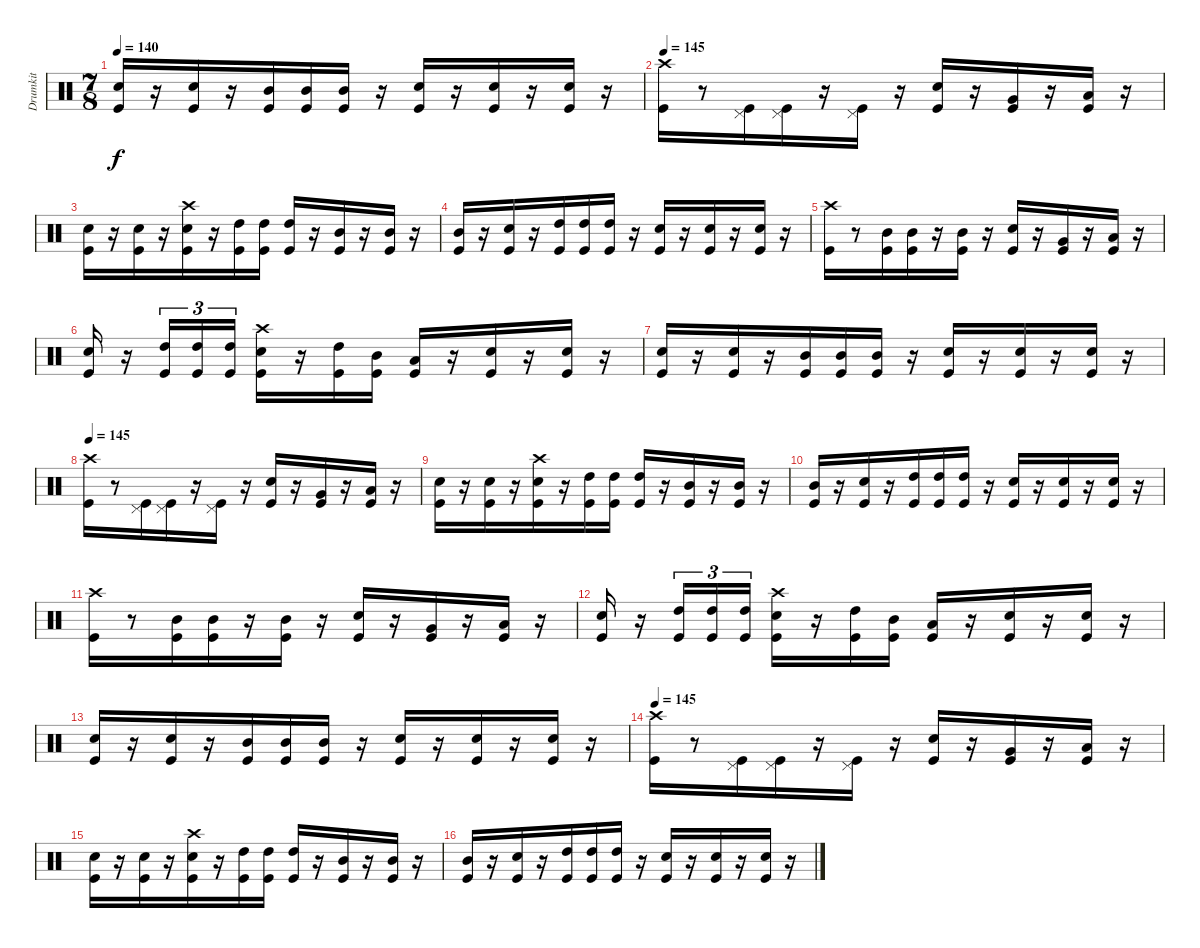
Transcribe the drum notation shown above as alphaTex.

\track ("Drumkit" "Drumkit") {instrument percussion}
\staff {score}
\articulation defaults
\ts (7 8)
\tempo 140
\clef neutral
\ks c
("Snare (hit) 2" "Kick (hit)").16{dy f} r.16 ("Snare (hit) 2" "Kick (hit)").16 r.16 ("Mid Tom (hit)" "Kick (hit)").16 ("Mid Tom (hit)" "Kick (hit)").16 ("Mid Tom (hit)" "Kick (hit)").16 r.16 ("Snare (hit) 2" "Kick (hit)").16 r.16 ("Snare (hit) 2" "Kick (hit)").16 r.16 ("Snare (hit) 2" "Kick (hit)").16 r.16 |
\tempo 145
("Crash high (hit)" "Kick (hit)").16 r.8 ("Pedal Hi-Hat (hit)" "Kick (hit)").16 ("Pedal Hi-Hat (hit)" "Kick (hit)").16 r.16 ("Pedal Hi-Hat (hit)" "Kick (hit)").16 r.16 ("Snare (hit) 2" "Kick (hit)").16 r.16 ("Very Low Tom (hit)" "Kick (hit)").16 r.16 ("Low Tom (hit)" "Kick (hit)").16 r.16 |
("Snare (hit) 2" "Kick (hit)").16 r.16 ("Snare (hit) 2" "Kick (hit)").16 r.16 ("Crash high (hit)" "Snare (hit) 2" "Kick (hit)").16 r.16 ("High Tom (hit)" "Kick (hit)").16 ("High Tom (hit)" "Kick (hit)").16 ("High Tom (hit)" "Kick (hit)").16 r.16 ("Mid Tom (hit)" "Kick (hit)").16 r.16 ("Mid Tom (hit)" "Kick (hit)").16 r.16 |
("Mid Tom (hit)" "Kick (hit)").16 r.16 ("Snare (hit) 2" "Kick (hit)").16 r.16 ("High Tom (hit)" "Kick (hit)").16 ("High Tom (hit)" "Kick (hit)").16 ("High Tom (hit)" "Kick (hit)").16 r.16 ("Snare (hit) 2" "Kick (hit)").16 r.16 ("Snare (hit) 2" "Kick (hit)").16 r.16 ("Snare (hit) 2" "Kick (hit)").16 r.16 |
("Crash high (hit)" "Kick (hit)").16 r.8 ("Mid Tom (hit)" "Kick (hit)").16 ("Mid Tom (hit)" "Kick (hit)").16 r.16 ("Mid Tom (hit)" "Kick (hit)").16 r.16 ("Snare (hit) 2" "Kick (hit)").16 r.16 ("Very Low Tom (hit)" "Kick (hit)").16 r.16 ("Low Tom (hit)" "Kick (hit)").16 r.16 |
("Snare (hit) 2" "Kick (hit)").16 r.16 ("High Tom (hit)" "Kick (hit)").16{tu (3 2)} ("High Tom (hit)" "Kick (hit)").16{tu (3 2)} ("High Tom (hit)" "Kick (hit)").16{tu (3 2)} ("Crash high (hit)" "Snare (hit) 2" "Kick (hit)").16 r.16 ("High Tom (hit)" "Kick (hit)").16 ("Mid Tom (hit)" "Kick (hit)").16 ("Low Tom (hit)" "Kick (hit)").16 r.16 ("Snare (hit) 2" "Kick (hit)").16 r.16 ("Snare (hit) 2" "Kick (hit)").16 r.16 |
("Snare (hit) 2" "Kick (hit)").16 r.16 ("Snare (hit) 2" "Kick (hit)").16 r.16 ("Mid Tom (hit)" "Kick (hit)").16 ("Mid Tom (hit)" "Kick (hit)").16 ("Mid Tom (hit)" "Kick (hit)").16 r.16 ("Snare (hit) 2" "Kick (hit)").16 r.16 ("Snare (hit) 2" "Kick (hit)").16 r.16 ("Snare (hit) 2" "Kick (hit)").16 r.16 |
\tempo 145
("Crash high (hit)" "Kick (hit)").16 r.8 ("Pedal Hi-Hat (hit)" "Kick (hit)").16 ("Pedal Hi-Hat (hit)" "Kick (hit)").16 r.16 ("Pedal Hi-Hat (hit)" "Kick (hit)").16 r.16 ("Snare (hit) 2" "Kick (hit)").16 r.16 ("Very Low Tom (hit)" "Kick (hit)").16 r.16 ("Low Tom (hit)" "Kick (hit)").16 r.16 |
("Snare (hit) 2" "Kick (hit)").16 r.16 ("Snare (hit) 2" "Kick (hit)").16 r.16 ("Crash high (hit)" "Snare (hit) 2" "Kick (hit)").16 r.16 ("High Tom (hit)" "Kick (hit)").16 ("High Tom (hit)" "Kick (hit)").16 ("High Tom (hit)" "Kick (hit)").16 r.16 ("Mid Tom (hit)" "Kick (hit)").16 r.16 ("Mid Tom (hit)" "Kick (hit)").16 r.16 |
("Mid Tom (hit)" "Kick (hit)").16 r.16 ("Snare (hit) 2" "Kick (hit)").16 r.16 ("High Tom (hit)" "Kick (hit)").16 ("High Tom (hit)" "Kick (hit)").16 ("High Tom (hit)" "Kick (hit)").16 r.16 ("Snare (hit) 2" "Kick (hit)").16 r.16 ("Snare (hit) 2" "Kick (hit)").16 r.16 ("Snare (hit) 2" "Kick (hit)").16 r.16 |
("Crash high (hit)" "Kick (hit)").16 r.8 ("Mid Tom (hit)" "Kick (hit)").16 ("Mid Tom (hit)" "Kick (hit)").16 r.16 ("Mid Tom (hit)" "Kick (hit)").16 r.16 ("Snare (hit) 2" "Kick (hit)").16 r.16 ("Very Low Tom (hit)" "Kick (hit)").16 r.16 ("Low Tom (hit)" "Kick (hit)").16 r.16 |
("Snare (hit) 2" "Kick (hit)").16 r.16 ("High Tom (hit)" "Kick (hit)").16{tu (3 2)} ("High Tom (hit)" "Kick (hit)").16{tu (3 2)} ("High Tom (hit)" "Kick (hit)").16{tu (3 2)} ("Crash high (hit)" "Snare (hit) 2" "Kick (hit)").16 r.16 ("High Tom (hit)" "Kick (hit)").16 ("Mid Tom (hit)" "Kick (hit)").16 ("Low Tom (hit)" "Kick (hit)").16 r.16 ("Snare (hit) 2" "Kick (hit)").16 r.16 ("Snare (hit) 2" "Kick (hit)").16 r.16 |
("Snare (hit) 2" "Kick (hit)").16 r.16 ("Snare (hit) 2" "Kick (hit)").16 r.16 ("Mid Tom (hit)" "Kick (hit)").16 ("Mid Tom (hit)" "Kick (hit)").16 ("Mid Tom (hit)" "Kick (hit)").16 r.16 ("Snare (hit) 2" "Kick (hit)").16 r.16 ("Snare (hit) 2" "Kick (hit)").16 r.16 ("Snare (hit) 2" "Kick (hit)").16 r.16 |
\tempo 145
("Crash high (hit)" "Kick (hit)").16 r.8 ("Pedal Hi-Hat (hit)" "Kick (hit)").16 ("Pedal Hi-Hat (hit)" "Kick (hit)").16 r.16 ("Pedal Hi-Hat (hit)" "Kick (hit)").16 r.16 ("Snare (hit) 2" "Kick (hit)").16 r.16 ("Very Low Tom (hit)" "Kick (hit)").16 r.16 ("Low Tom (hit)" "Kick (hit)").16 r.16 |
("Snare (hit) 2" "Kick (hit)").16 r.16 ("Snare (hit) 2" "Kick (hit)").16 r.16 ("Crash high (hit)" "Snare (hit) 2" "Kick (hit)").16 r.16 ("High Tom (hit)" "Kick (hit)").16 ("High Tom (hit)" "Kick (hit)").16 ("High Tom (hit)" "Kick (hit)").16 r.16 ("Mid Tom (hit)" "Kick (hit)").16 r.16 ("Mid Tom (hit)" "Kick (hit)").16 r.16 |
("Mid Tom (hit)" "Kick (hit)").16 r.16 ("Snare (hit) 2" "Kick (hit)").16 r.16 ("High Tom (hit)" "Kick (hit)").16 ("High Tom (hit)" "Kick (hit)").16 ("High Tom (hit)" "Kick (hit)").16 r.16 ("Snare (hit) 2" "Kick (hit)").16 r.16 ("Snare (hit) 2" "Kick (hit)").16 r.16 ("Snare (hit) 2" "Kick (hit)").16 r.16
